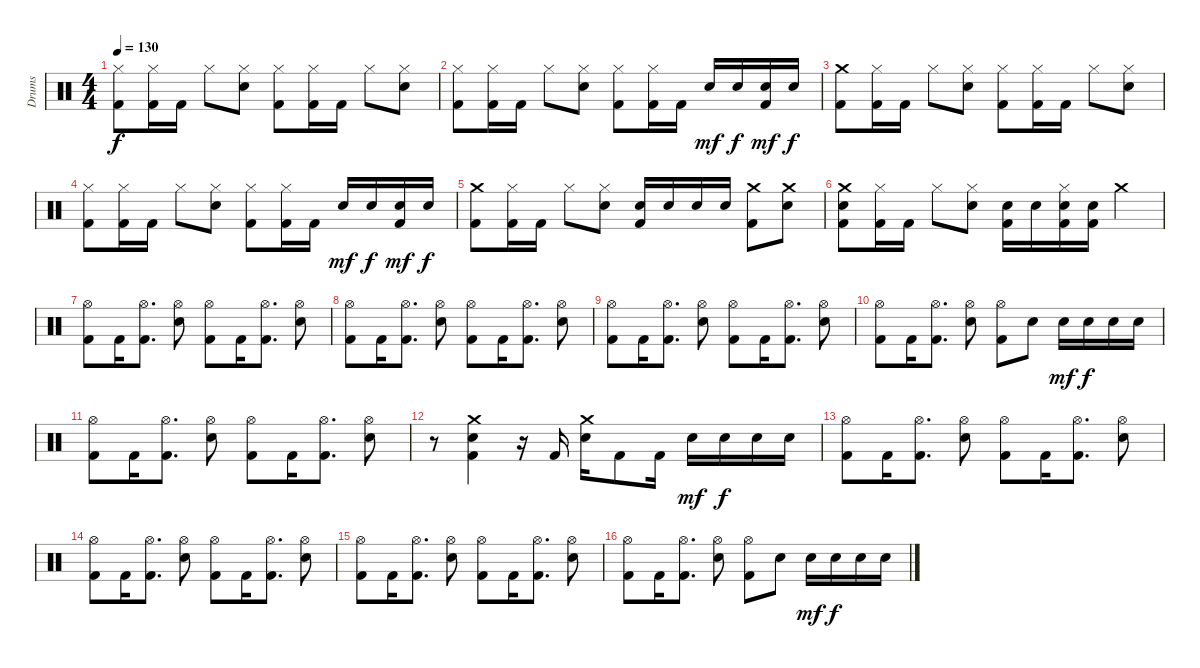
\track ("Drums" "Drums") {instrument percussion}
\staff {score}
\articulation defaults
\ts (4 4)
\tempo 130
\clef neutral
\ks c
("Hi-Hat (closed)" "Kick (hit) 2").8{dy f} ("Hi-Hat (closed)" "Kick (hit) 2").16 "Kick (hit) 2".16 "Hi-Hat (closed)".8 ("Hi-Hat (closed)" "Electric Snare (hit)").8 ("Hi-Hat (closed)" "Kick (hit) 2").8 ("Hi-Hat (closed)" "Kick (hit) 2").16 "Kick (hit) 2".16 "Hi-Hat (closed)".8 ("Hi-Hat (closed)" "Electric Snare (hit)").8 |
("Hi-Hat (closed)" "Kick (hit) 2").8 ("Hi-Hat (closed)" "Kick (hit) 2").16 "Kick (hit) 2".16 "Hi-Hat (closed)".8 ("Hi-Hat (closed)" "Electric Snare (hit)").8 ("Hi-Hat (closed)" "Kick (hit) 2").8 ("Hi-Hat (closed)" "Kick (hit) 2").16 "Kick (hit) 2".16 "Electric Snare (hit)".16{dy mf} "Electric Snare (hit)".16{dy f} ("Electric Snare (hit)" "Kick (hit) 2").16{dy mf} "Electric Snare (hit)".16{dy f} |
("Crash medium (hit)" "Kick (hit) 2").8 ("Hi-Hat (closed)" "Kick (hit) 2").16 "Kick (hit) 2".16 "Hi-Hat (closed)".8 ("Hi-Hat (closed)" "Electric Snare (hit)").8 ("Hi-Hat (closed)" "Kick (hit) 2").8 ("Hi-Hat (closed)" "Kick (hit) 2").16 "Kick (hit) 2".16 "Hi-Hat (closed)".8 ("Hi-Hat (closed)" "Electric Snare (hit)").8 |
("Hi-Hat (closed)" "Kick (hit) 2").8 ("Hi-Hat (closed)" "Kick (hit) 2").16 "Kick (hit) 2".16 "Hi-Hat (closed)".8 ("Hi-Hat (closed)" "Electric Snare (hit)").8 ("Hi-Hat (closed)" "Kick (hit) 2").8 ("Hi-Hat (closed)" "Kick (hit) 2").16 "Kick (hit) 2".16 "Electric Snare (hit)".16{dy mf} "Electric Snare (hit)".16{dy f} ("Electric Snare (hit)" "Kick (hit) 2").16{dy mf} "Electric Snare (hit)".16{dy f} |
("Crash medium (hit)" "Kick (hit) 2").8 ("Hi-Hat (closed)" "Kick (hit) 2").16 "Kick (hit) 2".16 "Hi-Hat (closed)".8 ("Hi-Hat (closed)" "Electric Snare (hit)").8 ("Electric Snare (hit)" "Kick (hit) 2").16 "Electric Snare (hit)".16 "Electric Snare (hit)".16 "Electric Snare (hit)".16 ("Crash medium (hit)" "Kick (hit) 2").8 ("Crash medium (hit)" "Electric Snare (hit)").8 |
("Crash medium (hit)" "Electric Snare (hit)" "Kick (hit) 2").8 ("Hi-Hat (closed)" "Kick (hit) 2").16 "Kick (hit) 2".16 "Hi-Hat (closed)".8 ("Hi-Hat (closed)" "Electric Snare (hit)").8 ("Electric Snare (hit)" "Kick (hit) 2").16 "Electric Snare (hit)".16 ("Hi-Hat (closed)" "Electric Snare (hit)" "Kick (hit) 2").16 ("Electric Snare (hit)" "Kick (hit) 2").16 "Crash medium (hit)".4 |
("Hi-Hat (open)" "Kick (hit) 2").8 "Kick (hit) 2".16 ("Hi-Hat (open)" "Kick (hit) 2").8{d} ("Hi-Hat (open)" "Electric Snare (hit)").8 ("Hi-Hat (open)" "Kick (hit) 2").8 "Kick (hit) 2".16 ("Hi-Hat (open)" "Kick (hit) 2").8{d} ("Hi-Hat (open)" "Electric Snare (hit)").8 |
("Hi-Hat (open)" "Kick (hit) 2").8 "Kick (hit) 2".16 ("Hi-Hat (open)" "Kick (hit) 2").8{d} ("Hi-Hat (open)" "Electric Snare (hit)").8 ("Hi-Hat (open)" "Kick (hit) 2").8 "Kick (hit) 2".16 ("Hi-Hat (open)" "Kick (hit) 2").8{d} ("Hi-Hat (open)" "Electric Snare (hit)").8 |
("Hi-Hat (open)" "Kick (hit) 2").8 "Kick (hit) 2".16 ("Hi-Hat (open)" "Kick (hit) 2").8{d} ("Hi-Hat (open)" "Electric Snare (hit)").8 ("Hi-Hat (open)" "Kick (hit) 2").8 "Kick (hit) 2".16 ("Hi-Hat (open)" "Kick (hit) 2").8{d} ("Hi-Hat (open)" "Electric Snare (hit)").8 |
("Hi-Hat (open)" "Kick (hit) 2").8 "Kick (hit) 2".16 ("Hi-Hat (open)" "Kick (hit) 2").8{d} ("Hi-Hat (open)" "Electric Snare (hit)").8 ("Hi-Hat (open)" "Kick (hit) 2").8 "Electric Snare (hit)".8 "Electric Snare (hit)".16{dy mf} "Electric Snare (hit)".16{dy f} "Electric Snare (hit)".16 "Electric Snare (hit)".16 |
("Hi-Hat (open)" "Kick (hit) 2").8 "Kick (hit) 2".16 ("Hi-Hat (open)" "Kick (hit) 2").8{d} ("Hi-Hat (open)" "Electric Snare (hit)").8 ("Hi-Hat (open)" "Kick (hit) 2").8 "Kick (hit) 2".16 ("Hi-Hat (open)" "Kick (hit) 2").8{d} ("Hi-Hat (open)" "Electric Snare (hit)").8 |
r.8 ("Crash medium (hit)" "Electric Snare (hit)" "Kick (hit) 2").4 r.16 "Kick (hit) 2".16 ("Crash medium (hit)" "Electric Snare (hit)").16 "Kick (hit) 2".8 "Kick (hit) 2".16 "Electric Snare (hit)".16{dy mf} "Electric Snare (hit)".16{dy f} "Electric Snare (hit)".16 "Electric Snare (hit)".16 |
("Hi-Hat (open)" "Kick (hit) 2").8 "Kick (hit) 2".16 ("Hi-Hat (open)" "Kick (hit) 2").8{d} ("Hi-Hat (open)" "Electric Snare (hit)").8 ("Hi-Hat (open)" "Kick (hit) 2").8 "Kick (hit) 2".16 ("Hi-Hat (open)" "Kick (hit) 2").8{d} ("Hi-Hat (open)" "Electric Snare (hit)").8 |
("Hi-Hat (open)" "Kick (hit) 2").8 "Kick (hit) 2".16 ("Hi-Hat (open)" "Kick (hit) 2").8{d} ("Hi-Hat (open)" "Electric Snare (hit)").8 ("Hi-Hat (open)" "Kick (hit) 2").8 "Kick (hit) 2".16 ("Hi-Hat (open)" "Kick (hit) 2").8{d} ("Hi-Hat (open)" "Electric Snare (hit)").8 |
("Hi-Hat (open)" "Kick (hit) 2").8 "Kick (hit) 2".16 ("Hi-Hat (open)" "Kick (hit) 2").8{d} ("Hi-Hat (open)" "Electric Snare (hit)").8 ("Hi-Hat (open)" "Kick (hit) 2").8 "Kick (hit) 2".16 ("Hi-Hat (open)" "Kick (hit) 2").8{d} ("Hi-Hat (open)" "Electric Snare (hit)").8 |
("Hi-Hat (open)" "Kick (hit) 2").8 "Kick (hit) 2".16 ("Hi-Hat (open)" "Kick (hit) 2").8{d} ("Hi-Hat (open)" "Electric Snare (hit)").8 ("Hi-Hat (open)" "Kick (hit) 2").8 "Electric Snare (hit)".8 "Electric Snare (hit)".16{dy mf} "Electric Snare (hit)".16{dy f} "Electric Snare (hit)".16 "Electric Snare (hit)".16
